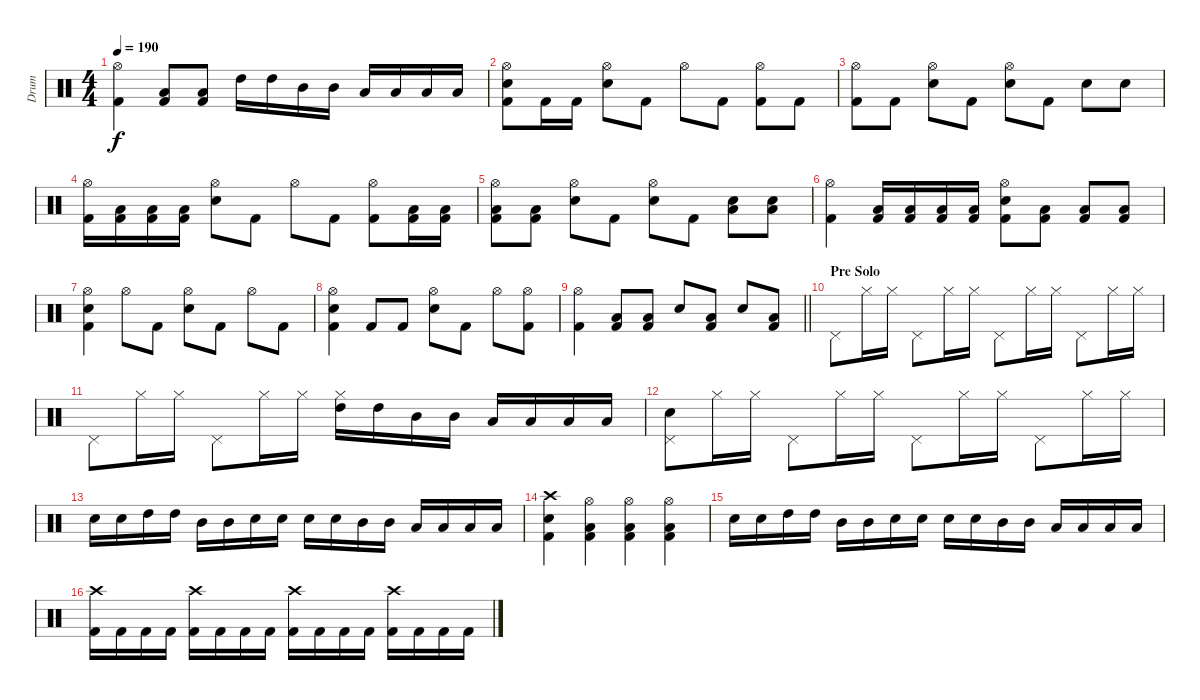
\track ("Drum" "Drum") {instrument percussion}
\staff {score}
\articulation defaults
\ts (4 4)
\tempo 190
\clef neutral
\ks c
("Hi-Hat (open)" "Kick (hit) 2").4{dy f} ("Low Floor Tom (hit)" "Kick (hit) 2").8 ("Low Floor Tom (hit)" "Kick (hit) 2").8 "High Tom (hit)".16 "High Tom (hit)".16 "Mid Tom (hit)".16 "Mid Tom (hit)".16 "Low Tom (hit)".16 "Low Tom (hit)".16 "Low Floor Tom (hit)".16 "Low Floor Tom (hit)".16 |
("Hi-Hat (open)" "Snare (hit) 2" "Kick (hit) 2").8 "Kick (hit) 2".16 "Kick (hit) 2".16 ("Hi-Hat (open)" "Snare (hit) 2").8 "Kick (hit) 2".8 "Hi-Hat (open)".8 "Kick (hit) 2".8 ("Hi-Hat (open)" "Kick (hit) 2").8 "Kick (hit) 2".8 |
("Hi-Hat (open)" "Kick (hit) 2").8 "Kick (hit) 2".8 ("Hi-Hat (open)" "Snare (hit) 2").8 "Kick (hit) 2".8 ("Hi-Hat (open)" "Snare (hit) 2").8 "Kick (hit) 2".8 "Snare (hit) 2".8 "Snare (hit) 2".8 |
("Hi-Hat (open)" "Kick (hit) 2").16 ("Low Floor Tom (hit)" "Kick (hit) 2").16 ("Low Floor Tom (hit)" "Kick (hit) 2").16 ("Low Floor Tom (hit)" "Kick (hit) 2").16 ("Hi-Hat (open)" "Snare (hit) 2").8 "Kick (hit) 2".8 "Hi-Hat (open)".8 "Kick (hit) 2".8 ("Hi-Hat (open)" "Kick (hit) 2").8 ("Low Floor Tom (hit)" "Kick (hit) 2").16 ("Low Floor Tom (hit)" "Kick (hit) 2").16 |
("Hi-Hat (open)" "Low Floor Tom (hit)" "Kick (hit) 2").8 ("Low Floor Tom (hit)" "Kick (hit) 2").8 ("Hi-Hat (open)" "Snare (hit) 2").8 "Kick (hit) 2".8 ("Hi-Hat (open)" "Snare (hit) 2").8 "Kick (hit) 2".8 ("Snare (hit) 2" "Low Floor Tom (hit)").8 ("Snare (hit) 2" "Low Floor Tom (hit)").8 |
("Hi-Hat (open)" "Kick (hit) 2").4 ("Low Floor Tom (hit)" "Kick (hit) 2").16 ("Low Floor Tom (hit)" "Kick (hit) 2").16 ("Low Floor Tom (hit)" "Kick (hit) 2").16 ("Low Floor Tom (hit)" "Kick (hit) 2").16 ("Hi-Hat (open)" "Snare (hit) 2" "Kick (hit) 2").8 ("Low Floor Tom (hit)" "Kick (hit) 2").8 ("Low Tom (hit)" "Kick (hit) 2").8 ("Low Floor Tom (hit)" "Kick (hit) 2").8 |
("Hi-Hat (open)" "Snare (hit) 2" "Kick (hit) 2").4 "Hi-Hat (open)".8 "Kick (hit) 2".8 ("Hi-Hat (open)" "Snare (hit) 2").8 "Kick (hit) 2".8 "Hi-Hat (open)".8 "Kick (hit) 2".8 |
("Hi-Hat (open)" "Snare (hit) 2" "Kick (hit) 2").4 "Kick (hit) 2".8 "Kick (hit) 2".8 ("Hi-Hat (open)" "Snare (hit) 2").8 "Kick (hit) 2".8 "Hi-Hat (open)".8 ("Hi-Hat (open)" "Kick (hit) 2").8 |
\barLineRight lightlight
("Hi-Hat (open)" "Kick (hit) 2").4 ("Low Floor Tom (hit)" "Kick (hit) 2").8 ("Low Floor Tom (hit)" "Kick (hit) 2").8 "Snare (hit) 2".8 ("Low Floor Tom (hit)" "Kick (hit) 2").8 "Snare (hit) 2".8 ("Low Floor Tom (hit)" "Kick (hit) 2").8 |
\section ("" "Pre Solo")
"Pedal Hi-Hat (hit)".8 "Hi-Hat (closed)".16 "Hi-Hat (closed)".16 "Pedal Hi-Hat (hit)".8 "Hi-Hat (closed)".16 "Hi-Hat (closed)".16 "Pedal Hi-Hat (hit)".8 "Hi-Hat (closed)".16 "Hi-Hat (closed)".16 "Pedal Hi-Hat (hit)".8 "Hi-Hat (closed)".16 "Hi-Hat (closed)".16 |
"Pedal Hi-Hat (hit)".8 "Hi-Hat (closed)".16 "Hi-Hat (closed)".16 "Pedal Hi-Hat (hit)".8 "Hi-Hat (closed)".16 "Hi-Hat (closed)".16 ("Hi-Hat (closed)" "High Tom (hit)").16 "High Tom (hit)".16 "Mid Tom (hit)".16 "Mid Tom (hit)".16 "Low Tom (hit)".16 "Low Tom (hit)".16 "Low Floor Tom (hit)".16 "Low Floor Tom (hit)".16 |
("Pedal Hi-Hat (hit)" "Snare (hit) 2").8 "Hi-Hat (closed)".16 "Hi-Hat (closed)".16 "Pedal Hi-Hat (hit)".8 "Hi-Hat (closed)".16 "Hi-Hat (closed)".16 "Pedal Hi-Hat (hit)".8 "Hi-Hat (closed)".16 "Hi-Hat (closed)".16 "Pedal Hi-Hat (hit)".8 "Hi-Hat (closed)".16 "Hi-Hat (closed)".16 |
"Snare (hit) 2".16 "Snare (hit) 2".16 "High Tom (hit)".16 "High Tom (hit)".16 "Mid Tom (hit)".16 "Mid Tom (hit)".16 "Snare (hit) 2".16 "Snare (hit) 2".16 "Snare (hit) 2".16 "Snare (hit) 2".16 "Mid Tom (hit)".16 "Mid Tom (hit)".16 "Low Tom (hit)".16 "Low Tom (hit)".16 "Low Tom (hit)".16 "Low Tom (hit)".16 |
("Crash high (hit)" "Snare (hit) 2" "Kick (hit) 2").4 ("Hi-Hat (open)" "Low Floor Tom (hit)" "Kick (hit) 2").4 ("Hi-Hat (open)" "Low Floor Tom (hit)" "Kick (hit) 2").4 ("Hi-Hat (open)" "Low Floor Tom (hit)" "Kick (hit) 2").4 |
"Snare (hit) 2".16 "Snare (hit) 2".16 "High Tom (hit)".16 "High Tom (hit)".16 "Mid Tom (hit)".16 "Mid Tom (hit)".16 "Snare (hit) 2".16 "Snare (hit) 2".16 "Snare (hit) 2".16 "Snare (hit) 2".16 "Mid Tom (hit)".16 "Mid Tom (hit)".16 "Low Tom (hit)".16 "Low Tom (hit)".16 "Low Tom (hit)".16 "Low Tom (hit)".16 |
("Crash high (hit)" "Kick (hit) 2").16 "Kick (hit) 2".16 "Kick (hit) 2".16 "Kick (hit) 2".16 ("Crash high (hit)" "Kick (hit) 2").16 "Kick (hit) 2".16 "Kick (hit) 2".16 "Kick (hit) 2".16 ("Crash high (hit)" "Kick (hit) 2").16 "Kick (hit) 2".16 "Kick (hit) 2".16 "Kick (hit) 2".16 ("Crash high (hit)" "Kick (hit) 2").16 "Kick (hit) 2".16 "Kick (hit) 2".16 "Kick (hit) 2".16
